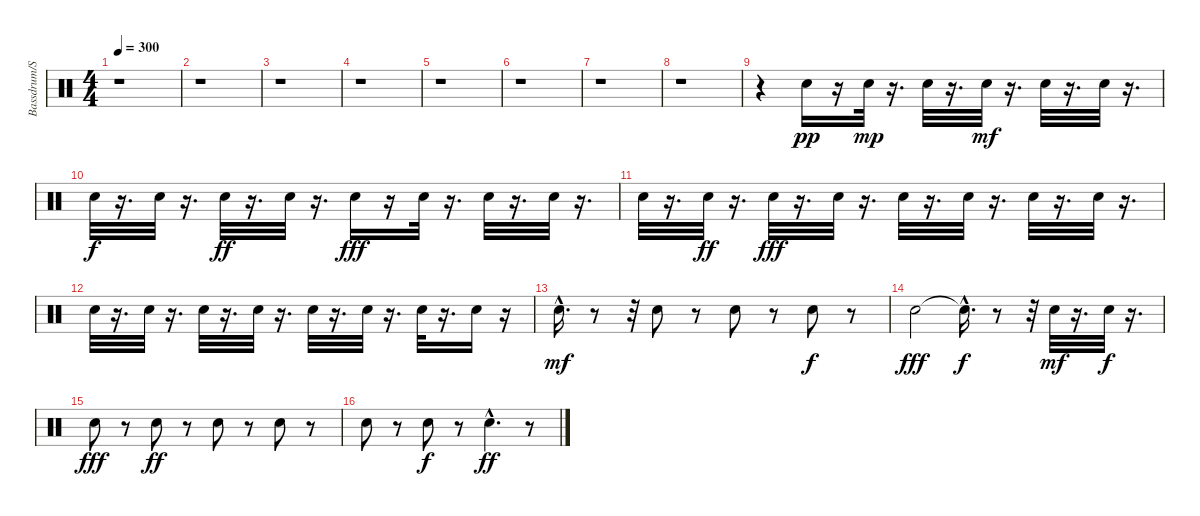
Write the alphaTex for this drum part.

\track ("Bassdrum/Snare" "Bassdrum/S") {instrument percussion}
\staff {score}
\articulation defaults
\ts (4 4)
\tempo 300
\clef neutral
\ks c
r.1{dy f} |
r.1 |
r.1 |
r.1 |
r.1 |
r.1 |
r.1 |
r.1 |
r.4 "Snare (hit) 2".16{dy pp} r.16 "Snare (hit) 2".32{dy mp} r.16{d} "Snare (hit) 2".32 r.16{d} "Snare (hit) 2".32{dy mf} r.16{d} "Snare (hit) 2".32 r.16{d} "Snare (hit) 2".32 r.16{d} |
"Snare (hit) 2".32{dy f} r.16{d} "Snare (hit) 2".32 r.16{d} "Snare (hit) 2".32{dy ff} r.16{d} "Snare (hit) 2".32 r.16{d} "Snare (hit) 2".16{dy fff} r.16 "Snare (hit) 2".32 r.16{d} "Snare (hit) 2".32 r.16{d} "Snare (hit) 2".32 r.16{d} |
"Snare (hit) 2".32 r.16{d} "Snare (hit) 2".32{dy ff} r.16{d} "Snare (hit) 2".32{dy fff} r.16{d} "Snare (hit) 2".32 r.16{d} "Snare (hit) 2".32 r.16{d} "Snare (hit) 2".32 r.16{d} "Snare (hit) 2".32 r.16{d} "Snare (hit) 2".32 r.16{d} |
"Snare (hit) 2".32 r.16{d} "Snare (hit) 2".32 r.16{d} "Snare (hit) 2".32 r.16{d} "Snare (hit) 2".32 r.16{d} "Snare (hit) 2".32 r.16{d} "Snare (hit) 2".32 r.16{d} "Snare (hit) 2".32 r.16{d} "Snare (hit) 2".16 r.16 |
"Snare (hit) 2"{hac}.16{d dy mf} r.8 r.32 "Snare (hit) 2".8 r.8 "Snare (hit) 2".8 r.8 "Snare (hit) 2".8{dy f} r.8 |
"Snare (hit) 2".2{dy fff} "Snare (hit)"{hac t}.16{d dy f} r.8 r.32 "Snare (hit) 2".32{dy mf} r.16{d} "Snare (hit) 2".32{dy f} r.16{d} |
"Snare (hit) 2".8{dy fff} r.8 "Snare (hit) 2".8{dy ff} r.8 "Snare (hit) 2".8 r.8 "Snare (hit) 2".8 r.8 |
"Snare (hit) 2".8 r.8 "Snare (hit) 2".8{dy f} r.8 "Snare (hit) 2"{hac}.4{d dy ff} r.8
